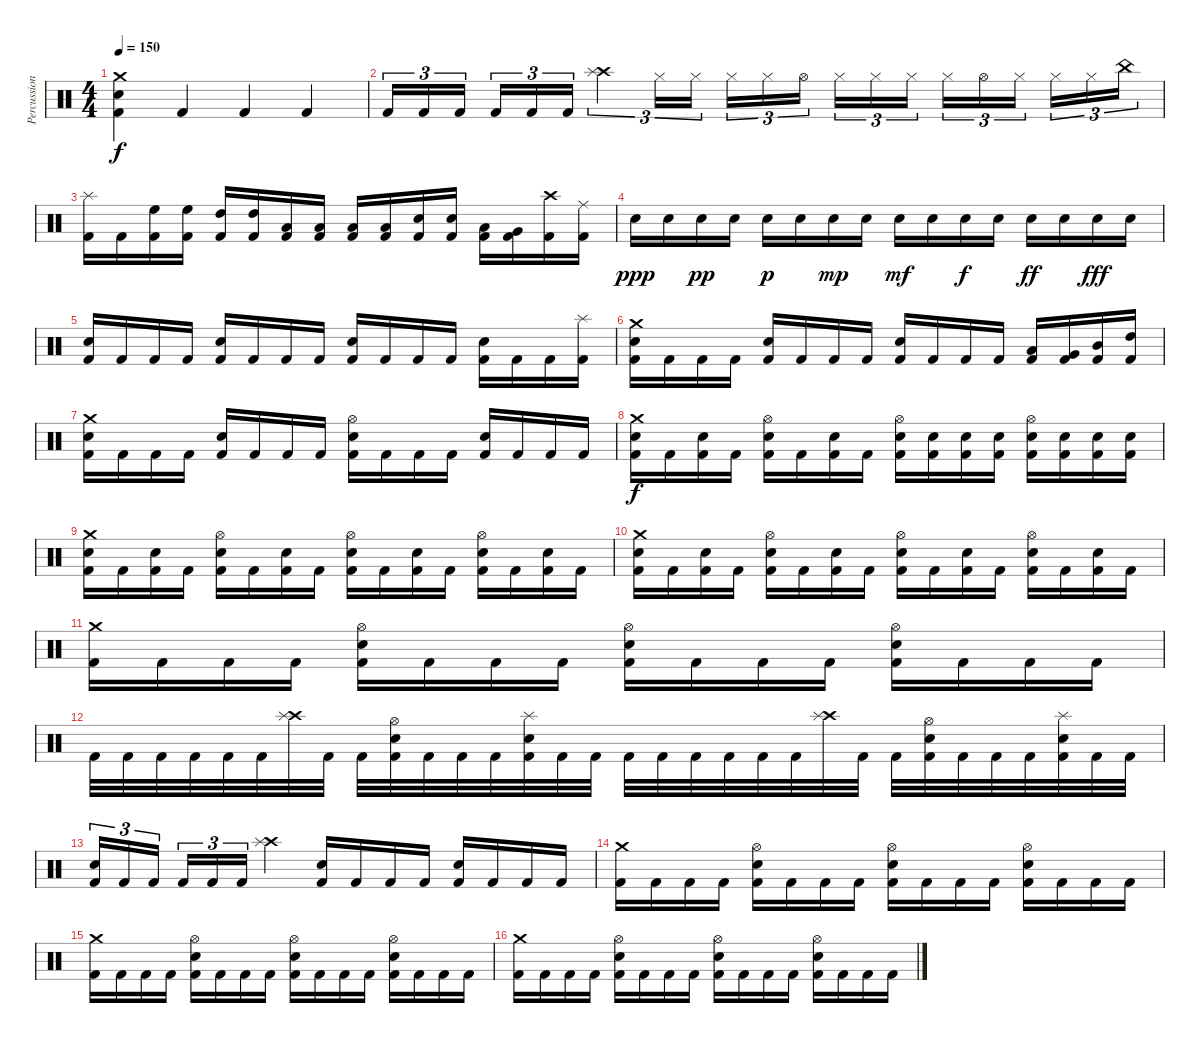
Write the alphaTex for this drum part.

\track ("Percussion" "Percussion") {instrument percussion}
\staff {score}
\articulation defaults
\ts (4 4)
\tempo 150
\clef neutral
\ks c
("Crash medium (hit)" "Snare (hit) 2" "Kick (hit) 2").4{dy f} "Kick (hit) 2".4 "Kick (hit) 2".4 "Kick (hit) 2".4 |
"Kick (hit) 2".16{tu (3 2)} "Kick (hit) 2".16{tu (3 2)} "Kick (hit) 2".16{tu (3 2) beam splitsecondary} "Kick (hit) 2".16{tu (3 2)} "Kick (hit) 2".16{tu (3 2)} "Kick (hit) 2".16{tu (3 2)} ("Crash high (hit)" "Splash (hit)").4{tu (3 2)} "Hi-Hat (closed)".16{tu (3 2)} "Hi-Hat (closed)".16{tu (3 2)} "Hi-Hat (closed)".16{tu (3 2)} "Hi-Hat (closed)".16{tu (3 2)} "Hi-Hat (open)".16{tu (3 2) beam splitsecondary} "Hi-Hat (closed)".16{tu (3 2)} "Hi-Hat (closed)".16{tu (3 2)} "Hi-Hat (closed)".16{tu (3 2)} "Hi-Hat (closed)".16{tu (3 2)} "Hi-Hat (open)".16{tu (3 2)} "Hi-Hat (closed)".16{tu (3 2) beam splitsecondary} "Hi-Hat (closed)".16{tu (3 2)} "Hi-Hat (closed)".16{tu (3 2)} "China (hit)".16{tu (3 2)} |
("Splash (hit)" "Kick (hit) 2").16 "Kick (hit) 2".16 ("High Floor Tom (hit)" "Kick (hit) 2").16 ("High Floor Tom (hit)" "Kick (hit) 2").16 ("High Tom (hit)" "Kick (hit) 2").16 ("High Tom (hit)" "Kick (hit) 2").16 ("Low Tom (hit)" "Kick (hit) 2").16 ("Low Tom (hit)" "Kick (hit) 2").16 ("Low Floor Tom (hit)" "Kick (hit) 2").16 ("Low Floor Tom (hit)" "Kick (hit) 2").16 ("Snare (hit) 2" "Kick (hit) 2").16 ("Snare (hit) 2" "Kick (hit) 2").16 ("Low Tom (hit)" "Kick (hit) 2").16 ("Very Low Tom (hit)" "Kick (hit) 2").16 ("Crash high (hit)" "Kick (hit) 2").16 ("Ride (middle)" "Kick (hit) 2").16 |
"Snare (hit) 2".16{dy ppp} "Snare (hit) 2".16 "Snare (hit) 2".16{dy pp} "Snare (hit) 2".16 "Snare (hit) 2".16{dy p} "Snare (hit) 2".16 "Snare (hit) 2".16{dy mp} "Snare (hit) 2".16 "Snare (hit) 2".16{dy mf} "Snare (hit) 2".16 "Snare (hit) 2".16{dy f} "Snare (hit) 2".16 "Snare (hit) 2".16{dy ff} "Snare (hit) 2".16 "Snare (hit) 2".16{dy fff} "Snare (hit) 2".16 |
("Snare (hit) 2" "Kick (hit) 2").16 "Kick (hit) 2".16 "Kick (hit) 2".16 "Kick (hit) 2".16 ("Snare (hit) 2" "Kick (hit) 2").16 "Kick (hit) 2".16 "Kick (hit) 2".16 "Kick (hit) 2".16 ("Snare (hit) 2" "Kick (hit) 2").16 "Kick (hit) 2".16 "Kick (hit) 2".16 "Kick (hit) 2".16 ("Snare (hit) 2" "Kick (hit) 2").16 "Kick (hit) 2".16 "Kick (hit) 2".16 ("Splash (hit)" "Kick (hit) 2").16 |
("Crash medium (hit)" "Electric Snare (hit)" "Kick (hit) 2").16 "Kick (hit) 2".16 "Kick (hit) 2".16 "Kick (hit) 2".16 ("Electric Snare (hit)" "Kick (hit) 2").16 "Kick (hit) 2".16 "Kick (hit) 2".16 "Kick (hit) 2".16 ("Electric Snare (hit)" "Kick (hit) 2").16 "Kick (hit) 2".16 "Kick (hit) 2".16 "Kick (hit) 2".16 ("Low Tom (hit)" "Kick (hit) 2").16 ("Very Low Tom (hit)" "Kick (hit) 2").16 ("Mid Tom (hit)" "Kick (hit) 2").16 ("High Tom (hit)" "Kick (hit) 2").16 |
("Crash medium (hit)" "Snare (hit) 2" "Kick (hit) 2").16 "Kick (hit) 2".16 "Kick (hit) 2".16 "Kick (hit) 2".16 ("Snare (hit) 2" "Kick (hit) 2").16 "Kick (hit) 2".16 "Kick (hit) 2".16 "Kick (hit) 2".16 ("Hi-Hat (open)" "Snare (hit) 2" "Kick (hit) 2").16 "Kick (hit) 2".16 "Kick (hit) 2".16 "Kick (hit) 2".16 ("Snare (hit) 2" "Kick (hit) 2").16 "Kick (hit) 2".16 "Kick (hit) 2".16 "Kick (hit) 2".16 |
("Crash medium (hit)" "Snare (hit) 2" "Kick (hit) 2").16{dy f} "Kick (hit) 2".16 ("Snare (hit) 2" "Kick (hit) 2").16 "Kick (hit) 2".16 ("Hi-Hat (open)" "Snare (hit) 2" "Kick (hit) 2").16 "Kick (hit) 2".16 ("Snare (hit) 2" "Kick (hit) 2").16 "Kick (hit) 2".16 ("Hi-Hat (open)" "Snare (hit) 2" "Kick (hit) 2").16 ("Snare (hit) 2" "Kick (hit) 2").16 ("Snare (hit) 2" "Kick (hit) 2").16 ("Snare (hit) 2" "Kick (hit) 2").16 ("Hi-Hat (open)" "Snare (hit) 2" "Kick (hit) 2").16 ("Snare (hit) 2" "Kick (hit) 2").16 ("Snare (hit) 2" "Kick (hit) 2").16 ("Snare (hit) 2" "Kick (hit) 2").16 |
("Crash medium (hit)" "Snare (hit) 2" "Kick (hit) 2").16 "Kick (hit) 2".16 ("Snare (hit) 2" "Kick (hit) 2").16 "Kick (hit) 2".16 ("Hi-Hat (open)" "Snare (hit) 2" "Kick (hit) 2").16 "Kick (hit) 2".16 ("Snare (hit) 2" "Kick (hit) 2").16 "Kick (hit) 2".16 ("Hi-Hat (open)" "Snare (hit) 2" "Kick (hit) 2").16 "Kick (hit) 2".16 ("Snare (hit) 2" "Kick (hit) 2").16 "Kick (hit) 2".16 ("Hi-Hat (open)" "Snare (hit) 2" "Kick (hit) 2").16 "Kick (hit) 2".16 ("Snare (hit) 2" "Kick (hit) 2").16 "Kick (hit) 2".16 |
("Crash medium (hit)" "Snare (hit) 2" "Kick (hit) 2").16 "Kick (hit) 2".16 ("Snare (hit) 2" "Kick (hit) 2").16 "Kick (hit) 2".16 ("Hi-Hat (open)" "Snare (hit) 2" "Kick (hit) 2").16 "Kick (hit) 2".16 ("Snare (hit) 2" "Kick (hit) 2").16 "Kick (hit) 2".16 ("Hi-Hat (open)" "Snare (hit) 2" "Kick (hit) 2").16 "Kick (hit) 2".16 ("Snare (hit) 2" "Kick (hit) 2").16 "Kick (hit) 2".16 ("Hi-Hat (open)" "Snare (hit) 2" "Kick (hit) 2").16 "Kick (hit) 2".16 ("Snare (hit) 2" "Kick (hit) 2").16 "Kick (hit) 2".16 |
("Crash medium (hit)" "Kick (hit) 2").16 "Kick (hit) 2".16 "Kick (hit) 2".16 "Kick (hit) 2".16 ("Hi-Hat (open)" "Snare (hit) 2" "Kick (hit) 2").16 "Kick (hit) 2".16 "Kick (hit) 2".16 "Kick (hit) 2".16 ("Hi-Hat (open)" "Snare (hit) 2" "Kick (hit) 2").16 "Kick (hit) 2".16 "Kick (hit) 2".16 "Kick (hit) 2".16 ("Hi-Hat (open)" "Snare (hit) 2" "Kick (hit) 2").16 "Kick (hit) 2".16 "Kick (hit) 2".16 "Kick (hit) 2".16 |
"Kick (hit) 2".32 "Kick (hit) 2".32 "Kick (hit) 2".32 "Kick (hit) 2".32 "Kick (hit) 2".32 "Kick (hit) 2".32 ("Crash high (hit)" "Splash (hit)").32 "Kick (hit) 2".32 "Kick (hit) 2".32 ("Hi-Hat (open)" "Snare (hit) 2" "Kick (hit) 2").32 "Kick (hit) 2".32 "Kick (hit) 2".32 "Kick (hit) 2".32 ("Splash (hit)" "Snare (hit) 2" "Kick (hit) 2").32 "Kick (hit) 2".32 "Kick (hit) 2".32 "Kick (hit) 2".32 "Kick (hit) 2".32 "Kick (hit) 2".32 "Kick (hit) 2".32 "Kick (hit) 2".32 "Kick (hit) 2".32 ("Crash high (hit)" "Splash (hit)").32 "Kick (hit) 2".32 "Kick (hit) 2".32 ("Hi-Hat (open)" "Snare (hit) 2" "Kick (hit) 2").32 "Kick (hit) 2".32 "Kick (hit) 2".32 "Kick (hit) 2".32 ("Splash (hit)" "Snare (hit) 2" "Kick (hit) 2").32 "Kick (hit) 2".32 "Kick (hit) 2".32 |
("Snare (hit) 2" "Kick (hit) 2").16{tu (3 2)} "Kick (hit) 2".16{tu (3 2)} "Kick (hit) 2".16{tu (3 2) beam splitsecondary} "Kick (hit) 2".16{tu (3 2)} "Kick (hit) 2".16{tu (3 2)} "Kick (hit) 2".16{tu (3 2)} ("Crash high (hit)" "Splash (hit)").4 ("Snare (hit) 2" "Kick (hit) 2").16 "Kick (hit) 2".16 "Kick (hit) 2".16 "Kick (hit) 2".16 ("Snare (hit) 2" "Kick (hit) 2").16 "Kick (hit) 2".16 "Kick (hit) 2".16 "Kick (hit) 2".16 |
("Crash medium (hit)" "Kick (hit) 2").16 "Kick (hit) 2".16 "Kick (hit) 2".16 "Kick (hit) 2".16 ("Hi-Hat (open)" "Snare (hit) 2" "Kick (hit) 2").16 "Kick (hit) 2".16 "Kick (hit) 2".16 "Kick (hit) 2".16 ("Hi-Hat (open)" "Snare (hit) 2" "Kick (hit) 2").16 "Kick (hit) 2".16 "Kick (hit) 2".16 "Kick (hit) 2".16 ("Hi-Hat (open)" "Snare (hit) 2" "Kick (hit) 2").16 "Kick (hit) 2".16 "Kick (hit) 2".16 "Kick (hit) 2".16 |
("Crash medium (hit)" "Kick (hit) 2").16 "Kick (hit) 2".16 "Kick (hit) 2".16 "Kick (hit) 2".16 ("Hi-Hat (open)" "Snare (hit) 2" "Kick (hit) 2").16 "Kick (hit) 2".16 "Kick (hit) 2".16 "Kick (hit) 2".16 ("Hi-Hat (open)" "Snare (hit) 2" "Kick (hit) 2").16 "Kick (hit) 2".16 "Kick (hit) 2".16 "Kick (hit) 2".16 ("Hi-Hat (open)" "Snare (hit) 2" "Kick (hit) 2").16 "Kick (hit) 2".16 "Kick (hit) 2".16 "Kick (hit) 2".16 |
("Crash medium (hit)" "Kick (hit) 2").16 "Kick (hit) 2".16 "Kick (hit) 2".16 "Kick (hit) 2".16 ("Hi-Hat (open)" "Snare (hit) 2" "Kick (hit) 2").16 "Kick (hit) 2".16 "Kick (hit) 2".16 "Kick (hit) 2".16 ("Hi-Hat (open)" "Snare (hit) 2" "Kick (hit) 2").16 "Kick (hit) 2".16 "Kick (hit) 2".16 "Kick (hit) 2".16 ("Hi-Hat (open)" "Snare (hit) 2" "Kick (hit) 2").16 "Kick (hit) 2".16 "Kick (hit) 2".16 "Kick (hit) 2".16
